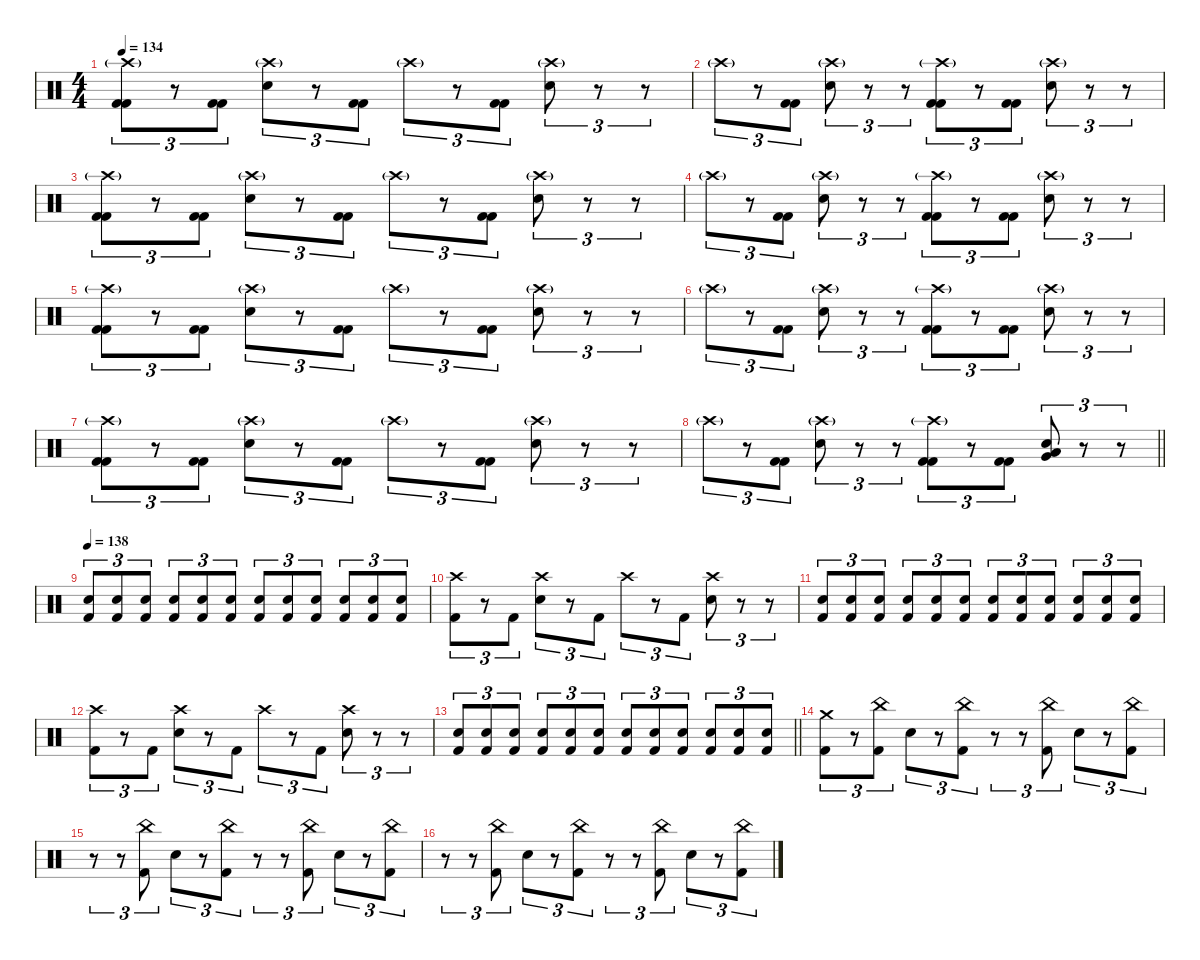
\defaultSystemsLayout 4
\hideDynamics
\bracketExtendMode nobrackets
\singleTrackTrackNamePolicy hidden
\multiTrackTrackNamePolicy hidden
\otherSystemsTrackNameOrientation horizontal
\track ("Gene Hoglan" "drm.") {instrument percussion}
\staff {score}
\articulation defaults
\ts (4 4)
\tempo 134
\clef neutral
\ks c
("Crash high (hit)"{g} "Kick (hit) 2" "Kick (hit) 2").8{tu (3 2) dy f beam Down} r.8{tu (3 2) beam Down} ("Kick (hit) 2" "Kick (hit) 2").8{tu (3 2) beam Down} ("Crash high (hit)"{g} "Snare (hit) 2").8{tu (3 2) beam Down} r.8{tu (3 2) beam Down} ("Kick (hit) 2" "Kick (hit) 2").8{tu (3 2) beam Down} "Crash high (hit)"{g}.8{tu (3 2) dy mf beam Down} r.8{tu (3 2) beam Down} ("Kick (hit) 2" "Kick (hit) 2").8{tu (3 2) dy f beam Down} ("Crash high (hit)"{g} "Snare (hit) 2").8{tu (3 2) beam Down} r.8{tu (3 2) beam Down} r.8{tu (3 2) beam Down} |
"Crash high (hit)"{g}.8{tu (3 2) dy mf beam Down} r.8{tu (3 2) beam Down} ("Kick (hit) 2" "Kick (hit) 2").8{tu (3 2) dy f beam Down} ("Crash high (hit)"{g} "Snare (hit) 2").8{tu (3 2) beam Down} r.8{tu (3 2) beam Down} r.8{tu (3 2) beam Down} ("Crash high (hit)"{g} "Kick (hit) 2" "Kick (hit) 2").8{tu (3 2) beam Down} r.8{tu (3 2) beam Down} ("Kick (hit) 2" "Kick (hit) 2").8{tu (3 2) beam Down} ("Crash high (hit)"{g} "Snare (hit) 2").8{tu (3 2) beam Down} r.8{tu (3 2) beam Down} r.8{tu (3 2) beam Down} |
("Crash high (hit)"{g} "Kick (hit) 2" "Kick (hit) 2").8{tu (3 2) beam Down} r.8{tu (3 2) beam Down} ("Kick (hit) 2" "Kick (hit) 2").8{tu (3 2) beam Down} ("Crash high (hit)"{g} "Snare (hit) 2").8{tu (3 2) beam Down} r.8{tu (3 2) beam Down} ("Kick (hit) 2" "Kick (hit) 2").8{tu (3 2) beam Down} "Crash high (hit)"{g}.8{tu (3 2) dy mf beam Down} r.8{tu (3 2) beam Down} ("Kick (hit) 2" "Kick (hit) 2").8{tu (3 2) dy f beam Down} ("Crash high (hit)"{g} "Snare (hit) 2").8{tu (3 2) beam Down} r.8{tu (3 2) beam Down} r.8{tu (3 2) beam Down} |
"Crash high (hit)"{g}.8{tu (3 2) dy mf beam Down} r.8{tu (3 2) beam Down} ("Kick (hit) 2" "Kick (hit) 2").8{tu (3 2) dy f beam Down} ("Crash high (hit)"{g} "Snare (hit) 2").8{tu (3 2) beam Down} r.8{tu (3 2) beam Down} r.8{tu (3 2) beam Down} ("Crash high (hit)"{g} "Kick (hit) 2" "Kick (hit) 2").8{tu (3 2) beam Down} r.8{tu (3 2) beam Down} ("Kick (hit) 2" "Kick (hit) 2").8{tu (3 2) beam Down} ("Crash high (hit)"{g} "Snare (hit) 2").8{tu (3 2) beam Down} r.8{tu (3 2) beam Down} r.8{tu (3 2) beam Down} |
("Crash high (hit)"{g} "Kick (hit) 2" "Kick (hit) 2").8{tu (3 2) beam Down} r.8{tu (3 2) beam Down} ("Kick (hit) 2" "Kick (hit) 2").8{tu (3 2) beam Down} ("Crash high (hit)"{g} "Snare (hit) 2").8{tu (3 2) beam Down} r.8{tu (3 2) beam Down} ("Kick (hit) 2" "Kick (hit) 2").8{tu (3 2) beam Down} "Crash high (hit)"{g}.8{tu (3 2) dy mf beam Down} r.8{tu (3 2) beam Down} ("Kick (hit) 2" "Kick (hit) 2").8{tu (3 2) dy f beam Down} ("Crash high (hit)"{g} "Snare (hit) 2").8{tu (3 2) beam Down} r.8{tu (3 2) beam Down} r.8{tu (3 2) beam Down} |
"Crash high (hit)"{g}.8{tu (3 2) dy mf beam Down} r.8{tu (3 2) beam Down} ("Kick (hit) 2" "Kick (hit) 2").8{tu (3 2) dy f beam Down} ("Crash high (hit)"{g} "Snare (hit) 2").8{tu (3 2) beam Down} r.8{tu (3 2) beam Down} r.8{tu (3 2) beam Down} ("Crash high (hit)"{g} "Kick (hit) 2" "Kick (hit) 2").8{tu (3 2) beam Down} r.8{tu (3 2) beam Down} ("Kick (hit) 2" "Kick (hit) 2").8{tu (3 2) beam Down} ("Crash high (hit)"{g} "Snare (hit) 2").8{tu (3 2) beam Down} r.8{tu (3 2) beam Down} r.8{tu (3 2) beam Down} |
("Crash high (hit)"{g} "Kick (hit) 2" "Kick (hit) 2").8{tu (3 2) beam Down} r.8{tu (3 2) beam Down} ("Kick (hit) 2" "Kick (hit) 2").8{tu (3 2) beam Down} ("Crash high (hit)"{g} "Snare (hit) 2").8{tu (3 2) beam Down} r.8{tu (3 2) beam Down} ("Kick (hit) 2" "Kick (hit) 2").8{tu (3 2) beam Down} "Crash high (hit)"{g}.8{tu (3 2) dy mf beam Down} r.8{tu (3 2) beam Down} ("Kick (hit) 2" "Kick (hit) 2").8{tu (3 2) dy f beam Down} ("Crash high (hit)"{g} "Snare (hit) 2").8{tu (3 2) beam Down} r.8{tu (3 2) beam Down} r.8{tu (3 2) beam Down} |
\barLineRight lightlight "Crash high (hit)"{g}.8{tu (3 2) dy mf beam Down}
r.8{tu (3 2) beam Down} ("Kick (hit) 2" "Kick (hit) 2").8{tu (3 2) dy f beam Down} ("Crash high (hit)"{g} "Snare (hit) 2").8{tu (3 2) beam Down} r.8{tu (3 2) beam Down} r.8{tu (3 2) beam Down} ("Crash high (hit)"{g} "Kick (hit) 2" "Kick (hit) 2").8{tu (3 2) beam Down} r.8{tu (3 2) beam Down} ("Kick (hit) 2" "Kick (hit) 2").8{tu (3 2) beam Down} ("Snare (hit) 2" "Very Low Tom (hit)" "Low Floor Tom (hit)").8{tu (3 2) beam Up} r.8{tu (3 2) beam Up} r.8{tu (3 2) beam Up} |
\tempo 138
("Snare (hit) 2" "Kick (hit) 2").8{tu (3 2) dy fff beam Up} ("Snare (hit) 2" "Kick (hit) 2").8{tu (3 2) beam Up} ("Snare (hit) 2" "Kick (hit) 2").8{tu (3 2) beam Up} ("Snare (hit) 2" "Kick (hit) 2").8{tu (3 2) beam Up} ("Snare (hit) 2" "Kick (hit) 2").8{tu (3 2) beam Up} ("Snare (hit) 2" "Kick (hit) 2").8{tu (3 2) beam Up} ("Snare (hit) 2" "Kick (hit) 2").8{tu (3 2) beam Up} ("Snare (hit) 2" "Kick (hit) 2").8{tu (3 2) beam Up} ("Snare (hit) 2" "Kick (hit) 2").8{tu (3 2) beam Up} ("Snare (hit) 2" "Kick (hit) 2").8{tu (3 2) beam Up} ("Snare (hit) 2" "Kick (hit) 2").8{tu (3 2) beam Up} ("Snare (hit) 2" "Kick (hit) 2").8{tu (3 2) beam Up} |
("Crash high (hit)" "Kick (hit) 2").8{tu (3 2) dy f beam Down} r.8{tu (3 2) beam Down} "Kick (hit) 2".8{tu (3 2) beam Down} ("Crash high (hit)" "Snare (hit) 2").8{tu (3 2) beam Down} r.8{tu (3 2) beam Down} "Kick (hit) 2".8{tu (3 2) beam Down} "Crash high (hit)".8{tu (3 2) beam Down} r.8{tu (3 2) beam Down} "Kick (hit) 2".8{tu (3 2) beam Down} ("Crash high (hit)" "Snare (hit) 2").8{tu (3 2) beam Down} r.8{tu (3 2) beam Down} r.8{tu (3 2) beam Down} |
("Snare (hit) 2" "Kick (hit) 2").8{tu (3 2) dy fff beam Up} ("Snare (hit) 2" "Kick (hit) 2").8{tu (3 2) beam Up} ("Snare (hit) 2" "Kick (hit) 2").8{tu (3 2) beam Up} ("Snare (hit) 2" "Kick (hit) 2").8{tu (3 2) beam Up} ("Snare (hit) 2" "Kick (hit) 2").8{tu (3 2) beam Up} ("Snare (hit) 2" "Kick (hit) 2").8{tu (3 2) beam Up} ("Snare (hit) 2" "Kick (hit) 2").8{tu (3 2) beam Up} ("Snare (hit) 2" "Kick (hit) 2").8{tu (3 2) beam Up} ("Snare (hit) 2" "Kick (hit) 2").8{tu (3 2) beam Up} ("Snare (hit) 2" "Kick (hit) 2").8{tu (3 2) beam Up} ("Snare (hit) 2" "Kick (hit) 2").8{tu (3 2) beam Up} ("Snare (hit) 2" "Kick (hit) 2").8{tu (3 2) beam Up} |
("Crash high (hit)" "Kick (hit) 2").8{tu (3 2) dy f beam Down} r.8{tu (3 2) beam Down} "Kick (hit) 2".8{tu (3 2) beam Down} ("Crash high (hit)" "Snare (hit) 2").8{tu (3 2) beam Down} r.8{tu (3 2) beam Down} "Kick (hit) 2".8{tu (3 2) beam Down} "Crash high (hit)".8{tu (3 2) beam Down} r.8{tu (3 2) beam Down} "Kick (hit) 2".8{tu (3 2) beam Down} ("Crash high (hit)" "Snare (hit) 2").8{tu (3 2) beam Down} r.8{tu (3 2) beam Down} r.8{tu (3 2) beam Down} |
\barLineRight lightlight
("Snare (hit) 2" "Kick (hit) 2").8{tu (3 2) dy fff beam Up} ("Snare (hit) 2" "Kick (hit) 2").8{tu (3 2) beam Up} ("Snare (hit) 2" "Kick (hit) 2").8{tu (3 2) beam Up} ("Snare (hit) 2" "Kick (hit) 2").8{tu (3 2) beam Up} ("Snare (hit) 2" "Kick (hit) 2").8{tu (3 2) beam Up} ("Snare (hit) 2" "Kick (hit) 2").8{tu (3 2) beam Up} ("Snare (hit) 2" "Kick (hit) 2").8{tu (3 2) beam Up} ("Snare (hit) 2" "Kick (hit) 2").8{tu (3 2) beam Up} ("Snare (hit) 2" "Kick (hit) 2").8{tu (3 2) beam Up} ("Snare (hit) 2" "Kick (hit) 2").8{tu (3 2) beam Up} ("Snare (hit) 2" "Kick (hit) 2").8{tu (3 2) beam Up} ("Snare (hit) 2" "Kick (hit) 2").8{tu (3 2) beam Up} |
("Crash medium (hit)" "Kick (hit) 2").8{tu (3 2) dy f beam Down} r.8{tu (3 2) beam Down} ("China (hit)" "Kick (hit) 2").8{tu (3 2) beam Down} "Snare (hit) 2".8{tu (3 2) beam Down} r.8{tu (3 2) beam Down} ("China (hit)" "Kick (hit) 2").8{tu (3 2) beam Down} r.8{tu (3 2) beam Down} r.8{tu (3 2) beam Down} ("China (hit)" "Kick (hit) 2").8{tu (3 2) beam Down} "Snare (hit) 2".8{tu (3 2) beam Down} r.8{tu (3 2) beam Down} ("China (hit)" "Kick (hit) 2").8{tu (3 2) beam Down} |
r.8{tu (3 2) beam Down} r.8{tu (3 2) beam Down} ("China (hit)" "Kick (hit) 2").8{tu (3 2) beam Down} "Snare (hit) 2".8{tu (3 2) beam Down} r.8{tu (3 2) beam Down} ("China (hit)" "Kick (hit) 2").8{tu (3 2) beam Down} r.8{tu (3 2) beam Down} r.8{tu (3 2) beam Down} ("China (hit)" "Kick (hit) 2").8{tu (3 2) beam Down} "Snare (hit) 2".8{tu (3 2) beam Down} r.8{tu (3 2) beam Down} ("China (hit)" "Kick (hit) 2").8{tu (3 2) beam Down} |
r.8{tu (3 2) beam Down} r.8{tu (3 2) beam Down} ("China (hit)" "Kick (hit) 2").8{tu (3 2) beam Down} "Snare (hit) 2".8{tu (3 2) beam Down} r.8{tu (3 2) beam Down} ("China (hit)" "Kick (hit) 2").8{tu (3 2) beam Down} r.8{tu (3 2) beam Down} r.8{tu (3 2) beam Down} ("China (hit)" "Kick (hit) 2").8{tu (3 2) beam Down} "Snare (hit) 2".8{tu (3 2) beam Down} r.8{tu (3 2) beam Down} ("China (hit)" "Kick (hit) 2").8{tu (3 2) beam Down}
